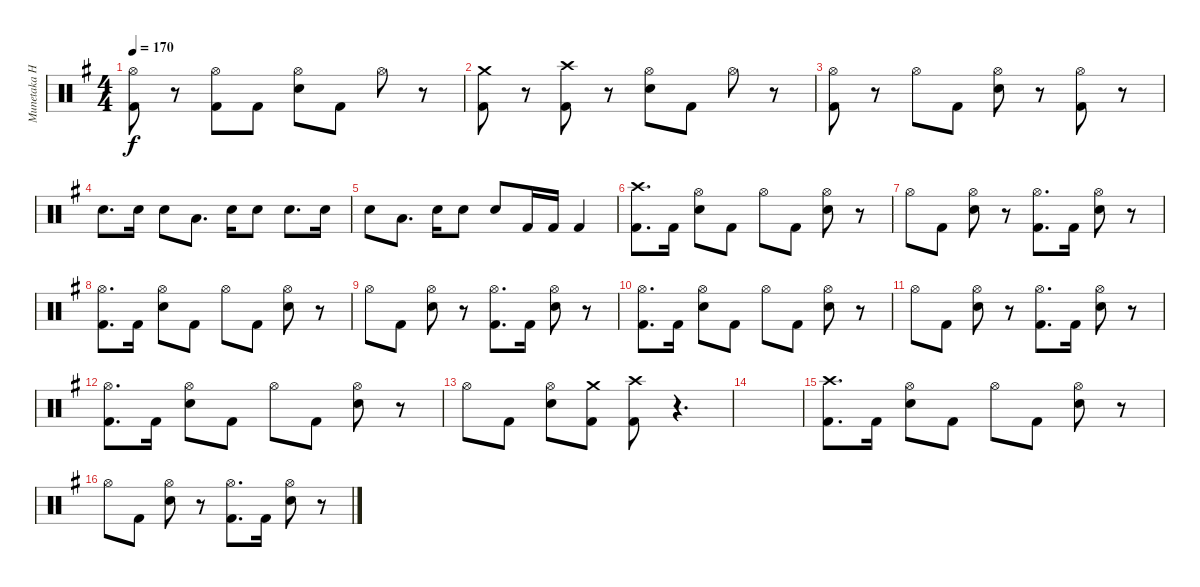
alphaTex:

\track ("Munetaka Higuchi" "Munetaka H") {instrument percussion}
\staff {score}
\articulation defaults
\ts (4 4)
\tempo 170
\clef neutral
\ks eminor
("Hi-Hat (open)" "Kick (hit) 2").8{dy f} r.8 ("Hi-Hat (open)" "Kick (hit) 2").8 "Kick (hit) 2".8 ("Hi-Hat (open)" "Electric Snare (hit)").8 "Kick (hit) 2".8 "Hi-Hat (open)".8 r.8 |
("Crash medium (hit)" "Kick (hit) 2").8 r.8 ("Crash high (hit)" "Kick (hit) 2").8 r.8 ("Hi-Hat (open)" "Electric Snare (hit)").8 "Kick (hit) 2".8 "Hi-Hat (open)".8 r.8 |
("Hi-Hat (open)" "Kick (hit) 2").8 r.8 "Hi-Hat (open)".8 "Kick (hit) 2".8 ("Hi-Hat (open)" "Electric Snare (hit)").8 r.8 ("Hi-Hat (open)" "Kick (hit) 2").8 r.8 |
"Electric Snare (hit)".8{d} "Electric Snare (hit)".16 "Electric Snare (hit)".8 "Low Tom (hit)".8{d} "Electric Snare (hit)".16 "Electric Snare (hit)".8 "Electric Snare (hit)".8{d} "Electric Snare (hit)".16 |
"Electric Snare (hit)".8 "Low Tom (hit)".8{d} "Electric Snare (hit)".16 "Electric Snare (hit)".8 "Electric Snare (hit)".8 "Kick (hit) 2".16 "Kick (hit) 2".16 "Kick (hit) 2".4 |
("Crash high (hit)" "Kick (hit) 2").8{d} "Kick (hit) 2".16 ("Hi-Hat (open)" "Electric Snare (hit)").8 "Kick (hit) 2".8 "Hi-Hat (open)".8 "Kick (hit) 2".8 ("Hi-Hat (open)" "Electric Snare (hit)").8 r.8 |
"Hi-Hat (open)".8 "Kick (hit) 2".8 ("Hi-Hat (open)" "Electric Snare (hit)").8 r.8 ("Hi-Hat (open)" "Kick (hit) 2").8{d} "Kick (hit) 2".16 ("Hi-Hat (open)" "Electric Snare (hit)").8 r.8 |
("Hi-Hat (open)" "Kick (hit) 2").8{d} "Kick (hit) 2".16 ("Hi-Hat (open)" "Electric Snare (hit)").8 "Kick (hit) 2".8 "Hi-Hat (open)".8 "Kick (hit) 2".8 ("Hi-Hat (open)" "Electric Snare (hit)").8 r.8 |
"Hi-Hat (open)".8 "Kick (hit) 2".8 ("Hi-Hat (open)" "Electric Snare (hit)").8 r.8 ("Hi-Hat (open)" "Kick (hit) 2").8{d} "Kick (hit) 2".16 ("Hi-Hat (open)" "Electric Snare (hit)").8 r.8 |
("Hi-Hat (open)" "Kick (hit) 2").8{d} "Kick (hit) 2".16 ("Hi-Hat (open)" "Electric Snare (hit)").8 "Kick (hit) 2".8 "Hi-Hat (open)".8 "Kick (hit) 2".8 ("Hi-Hat (open)" "Electric Snare (hit)").8 r.8 |
"Hi-Hat (open)".8 "Kick (hit) 2".8 ("Hi-Hat (open)" "Electric Snare (hit)").8 r.8 ("Hi-Hat (open)" "Kick (hit) 2").8{d} "Kick (hit) 2".16 ("Hi-Hat (open)" "Electric Snare (hit)").8 r.8 |
("Hi-Hat (open)" "Kick (hit) 2").8{d} "Kick (hit) 2".16 ("Hi-Hat (open)" "Electric Snare (hit)").8 "Kick (hit) 2".8 "Hi-Hat (open)".8 "Kick (hit) 2".8 ("Hi-Hat (open)" "Electric Snare (hit)").8 r.8 |
"Hi-Hat (open)".8 "Kick (hit) 2".8 ("Hi-Hat (open)" "Electric Snare (hit)").8 ("Crash medium (hit)" "Kick (hit) 2").8 ("Crash high (hit)" "Kick (hit) 2").8 r.4{d} |
|
("Crash high (hit)" "Kick (hit) 2").8{d} "Kick (hit) 2".16 ("Hi-Hat (open)" "Electric Snare (hit)").8 "Kick (hit) 2".8 "Hi-Hat (open)".8 "Kick (hit) 2".8 ("Hi-Hat (open)" "Electric Snare (hit)").8 r.8 |
"Hi-Hat (open)".8 "Kick (hit) 2".8 ("Hi-Hat (open)" "Electric Snare (hit)").8 r.8 ("Hi-Hat (open)" "Kick (hit) 2").8{d} "Kick (hit) 2".16 ("Hi-Hat (open)" "Electric Snare (hit)").8 r.8
